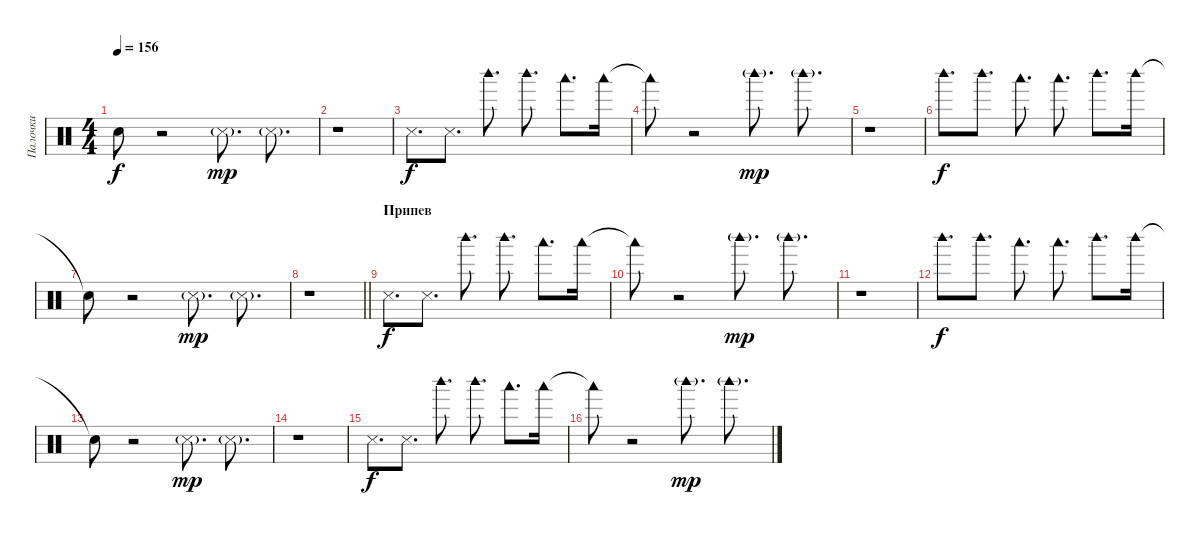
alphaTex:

\track ("Палочки" "Палочки") {instrument percussion}
\staff {score}
\articulation defaults
\ts (4 4)
\tempo 156
\clef neutral
\ks c "Snare (hit)"{t}.8{dy f}
r.2 "Metronome (hit)"{g}.8{d dy mp} "Metronome (hit)"{g}.8{d} |
r.1 |
"Metronome (hit)".8{d dy f} "Metronome (hit)".8{d} "Woodblock high (hit)".8{d} "Woodblock high (hit)".8{d} "Woodblock low (hit)".8{d} "Woodblock low (hit)".16 |
"Woodblock low (hit)"{t}.8 r.2 "Woodblock high (hit)"{g}.8{d dy mp} "Woodblock high (hit)"{g}.8{d} |
r.1 |
"Woodblock high (hit)".8{d dy f} "Woodblock high (hit)".8{d} "Woodblock low (hit)".8{d} "Woodblock low (hit)".8{d} "Woodblock high (hit)".8{d} "Woodblock high (hit)".16 |
"Snare (hit)"{t}.8 r.2 "Metronome (hit)"{g}.8{d dy mp} "Metronome (hit)"{g}.8{d} |
\barLineRight lightlight
r.1 |
\section ("" "Припев")
"Metronome (hit)".8{d dy f} "Metronome (hit)".8{d} "Woodblock high (hit)".8{d} "Woodblock high (hit)".8{d} "Woodblock low (hit)".8{d} "Woodblock low (hit)".16 |
"Woodblock low (hit)"{t}.8 r.2 "Woodblock high (hit)"{g}.8{d dy mp} "Woodblock high (hit)"{g}.8{d} |
r.1 |
"Woodblock high (hit)".8{d dy f} "Woodblock high (hit)".8{d} "Woodblock low (hit)".8{d} "Woodblock low (hit)".8{d} "Woodblock high (hit)".8{d} "Woodblock high (hit)".16 |
"Snare (hit)"{t}.8 r.2 "Metronome (hit)"{g}.8{d dy mp} "Metronome (hit)"{g}.8{d} |
r.1 |
"Metronome (hit)".8{d dy f} "Metronome (hit)".8{d} "Woodblock high (hit)".8{d} "Woodblock high (hit)".8{d} "Woodblock low (hit)".8{d} "Woodblock low (hit)".16 |
"Woodblock low (hit)"{t}.8 r.2 "Woodblock high (hit)"{g}.8{d dy mp} "Woodblock high (hit)"{g}.8{d}
